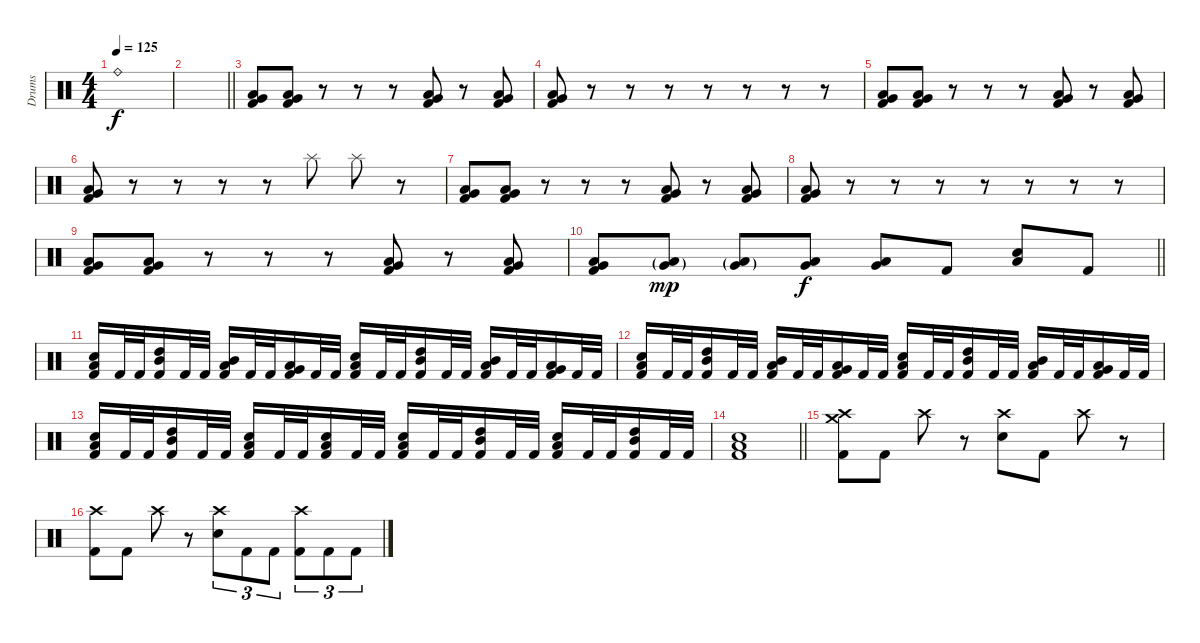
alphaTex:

\track ("Drums" "Drums") {instrument percussion}
\staff {score}
\articulation defaults
\ts (4 4)
\tempo 125
\clef neutral
\ks c "Ride (bell)".1{dy f}
|
\barLineRight lightlight
|
\section ("" "")
("Very Low Tom (hit)" "Low Floor Tom (hit)" "Kick (hit) 2").8 ("Very Low Tom (hit)" "Low Floor Tom (hit)" "Kick (hit) 2").8 r.8 r.8 r.8 ("Very Low Tom (hit)" "Low Floor Tom (hit)" "Kick (hit) 2").8 r.8 ("Very Low Tom (hit)" "Low Floor Tom (hit)" "Kick (hit) 2").8 |
("Very Low Tom (hit)" "Low Floor Tom (hit)" "Kick (hit) 2").8 r.8 r.8 r.8 r.8 r.8 r.8 r.8 |
("Very Low Tom (hit)" "Low Floor Tom (hit)" "Kick (hit) 2").8 ("Very Low Tom (hit)" "Low Floor Tom (hit)" "Kick (hit) 2").8 r.8 r.8 r.8 ("Very Low Tom (hit)" "Low Floor Tom (hit)" "Kick (hit) 2").8 r.8 ("Very Low Tom (hit)" "Low Floor Tom (hit)" "Kick (hit) 2").8 |
("Very Low Tom (hit)" "Low Floor Tom (hit)" "Kick (hit) 2").8 r.8 r.8 r.8 r.8 "Splash (hit)".8 "Splash (hit)".8 r.8 |
("Very Low Tom (hit)" "Low Floor Tom (hit)" "Kick (hit) 2").8 ("Very Low Tom (hit)" "Low Floor Tom (hit)" "Kick (hit) 2").8 r.8 r.8 r.8 ("Very Low Tom (hit)" "Low Floor Tom (hit)" "Kick (hit) 2").8 r.8 ("Very Low Tom (hit)" "Low Floor Tom (hit)" "Kick (hit) 2").8 |
("Very Low Tom (hit)" "Low Floor Tom (hit)" "Kick (hit) 2").8 r.8 r.8 r.8 r.8 r.8 r.8 r.8 |
("Very Low Tom (hit)" "Low Floor Tom (hit)" "Kick (hit) 2").8 ("Very Low Tom (hit)" "Low Floor Tom (hit)" "Kick (hit) 2").8 r.8 r.8 r.8 ("Very Low Tom (hit)" "Low Floor Tom (hit)" "Kick (hit) 2").8 r.8 ("Very Low Tom (hit)" "Low Floor Tom (hit)" "Kick (hit) 2").8 |
\barLineRight lightlight
("Very Low Tom (hit)" "Low Floor Tom (hit)" "Kick (hit) 2").8 ("Very Low Tom (hit)"{g} "Low Floor Tom (hit)"{g}).8{dy mp} ("Very Low Tom (hit)"{g} "Low Floor Tom (hit)"{g}).8 ("Very Low Tom (hit)" "Low Floor Tom (hit)").8{dy f} ("Very Low Tom (hit)" "Low Floor Tom (hit)").8 "Kick (hit) 2".8 ("Low Floor Tom (hit)" "Electric Snare (hit)").8 "Kick (hit) 2".8 |
\section ("" "")
("Low Floor Tom (hit)" "Electric Snare (hit)" "Kick (hit) 2").16 "Kick (hit) 2".32 "Kick (hit) 2".32 ("High Tom (hit)" "Mid Tom (hit)" "Kick (hit) 2").16 "Kick (hit) 2".32 "Kick (hit) 2".32 ("Mid Tom (hit)" "Low Tom (hit)" "Kick (hit) 2").16 "Kick (hit) 2".32 "Kick (hit) 2".32 ("Very Low Tom (hit)" "Low Tom (hit)" "Kick (hit) 2").16 "Kick (hit) 2".32 "Kick (hit) 2".32 ("Low Floor Tom (hit)" "Electric Snare (hit)" "Kick (hit) 2").16 "Kick (hit) 2".32 "Kick (hit) 2".32 ("High Tom (hit)" "Mid Tom (hit)" "Kick (hit) 2").16 "Kick (hit) 2".32 "Kick (hit) 2".32 ("Mid Tom (hit)" "Low Tom (hit)" "Kick (hit) 2").16 "Kick (hit) 2".32 "Kick (hit) 2".32 ("Very Low Tom (hit)" "Low Tom (hit)" "Kick (hit) 2").16 "Kick (hit) 2".32 "Kick (hit) 2".32 |
("Low Floor Tom (hit)" "Electric Snare (hit)" "Kick (hit) 2").16 "Kick (hit) 2".32 "Kick (hit) 2".32 ("High Tom (hit)" "Mid Tom (hit)" "Kick (hit) 2").16 "Kick (hit) 2".32 "Kick (hit) 2".32 ("Mid Tom (hit)" "Low Tom (hit)" "Kick (hit) 2").16 "Kick (hit) 2".32 "Kick (hit) 2".32 ("Very Low Tom (hit)" "Low Tom (hit)" "Kick (hit) 2").16 "Kick (hit) 2".32 "Kick (hit) 2".32 ("Low Floor Tom (hit)" "Electric Snare (hit)" "Kick (hit) 2").16 "Kick (hit) 2".32 "Kick (hit) 2".32 ("High Tom (hit)" "Mid Tom (hit)" "Kick (hit) 2").16 "Kick (hit) 2".32 "Kick (hit) 2".32 ("Mid Tom (hit)" "Low Tom (hit)" "Kick (hit) 2").16 "Kick (hit) 2".32 "Kick (hit) 2".32 ("Very Low Tom (hit)" "Low Tom (hit)" "Kick (hit) 2").16 "Kick (hit) 2".32 "Kick (hit) 2".32 |
("Low Floor Tom (hit)" "Electric Snare (hit)" "Kick (hit) 2").16 "Kick (hit) 2".32 "Kick (hit) 2".32 ("High Tom (hit)" "Mid Tom (hit)" "Kick (hit) 2").16 "Kick (hit) 2".32 "Kick (hit) 2".32 ("Low Floor Tom (hit)" "Electric Snare (hit)" "Kick (hit) 2").16 "Kick (hit) 2".32 "Kick (hit) 2".32 ("Low Floor Tom (hit)" "Electric Snare (hit)" "Kick (hit) 2").16 "Kick (hit) 2".32 "Kick (hit) 2".32 ("Low Floor Tom (hit)" "Electric Snare (hit)" "Kick (hit) 2").16 "Kick (hit) 2".32 "Kick (hit) 2".32 ("High Tom (hit)" "Mid Tom (hit)" "Kick (hit) 2").16 "Kick (hit) 2".32 "Kick (hit) 2".32 ("Low Floor Tom (hit)" "Electric Snare (hit)" "Kick (hit) 2").16 "Kick (hit) 2".32 "Kick (hit) 2".32 ("High Tom (hit)" "Mid Tom (hit)" "Kick (hit) 2").16 "Kick (hit) 2".32 "Kick (hit) 2".32 |
\barLineRight lightlight
("Low Floor Tom (hit)" "Electric Snare (hit)" "Kick (hit) 2").1 |
\section ("" "")
("Crash medium (hit)" "Crash high (hit)" "Kick (hit) 2").8 "Kick (hit) 2".8 "Crash high (hit)".8 r.8 ("Crash high (hit)" "Electric Snare (hit)").8 "Kick (hit) 2".8 "Crash high (hit)".8 r.8 |
("Crash high (hit)" "Kick (hit) 2").8 "Kick (hit) 2".8 "Crash high (hit)".8 r.8 ("Crash high (hit)" "Electric Snare (hit)").8{tu (3 2)} "Kick (hit) 2".8{tu (3 2)} "Kick (hit) 2".8{tu (3 2)} ("Crash high (hit)" "Kick (hit) 2").8{tu (3 2)} "Kick (hit) 2".8{tu (3 2)} "Kick (hit) 2".8{tu (3 2)}
